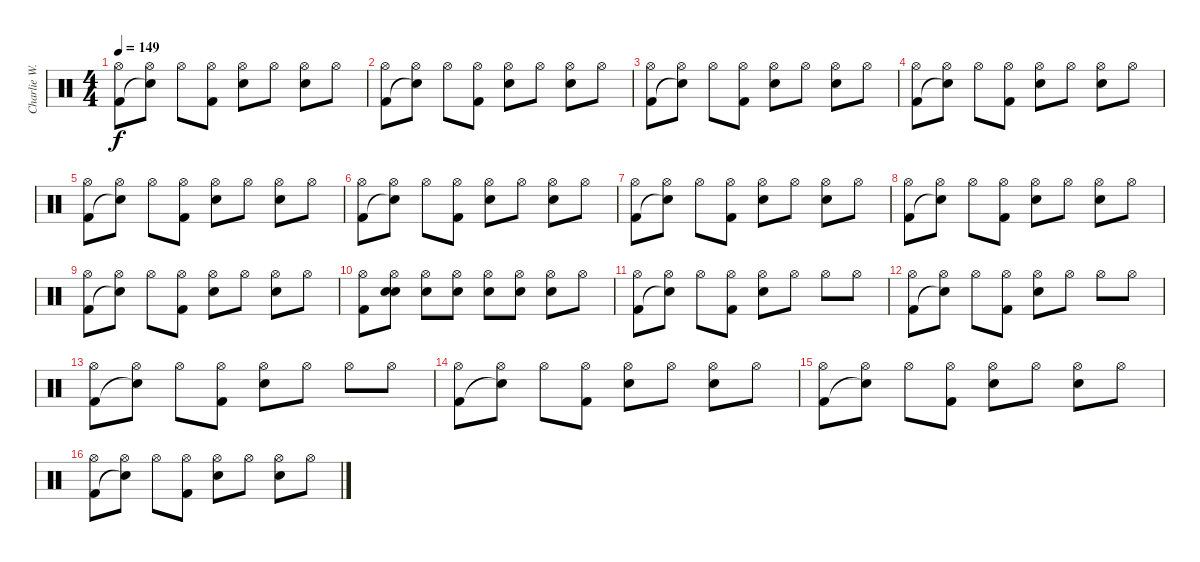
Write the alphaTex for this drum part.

\track ("Charlie W. drums" "Charlie W.") {instrument percussion}
\staff {score}
\articulation defaults
\ts (4 4)
\tempo 149
\clef neutral
\ks c
("Hi-Hat (open)" "Kick (hit) 2").8{dy f} ("Hi-Hat (open)" "Snare (hit)"{t}).8 "Hi-Hat (open)".8 ("Hi-Hat (open)" "Kick (hit) 2").8 ("Hi-Hat (open)" "Snare (hit) 2").8 "Hi-Hat (open)".8 ("Hi-Hat (open)" "Snare (hit) 2").8 "Hi-Hat (open)".8 |
("Hi-Hat (open)" "Kick (hit) 2").8 ("Hi-Hat (open)" "Snare (hit)"{t}).8 "Hi-Hat (open)".8 ("Hi-Hat (open)" "Kick (hit) 2").8 ("Hi-Hat (open)" "Snare (hit) 2").8 "Hi-Hat (open)".8 ("Hi-Hat (open)" "Snare (hit) 2").8 "Hi-Hat (open)".8 |
("Hi-Hat (open)" "Kick (hit) 2").8 ("Hi-Hat (open)" "Snare (hit)"{t}).8 "Hi-Hat (open)".8 ("Hi-Hat (open)" "Kick (hit) 2").8 ("Hi-Hat (open)" "Snare (hit) 2").8 "Hi-Hat (open)".8 ("Hi-Hat (open)" "Snare (hit) 2").8 "Hi-Hat (open)".8 |
("Hi-Hat (open)" "Kick (hit) 2").8 ("Hi-Hat (open)" "Snare (hit)"{t}).8 "Hi-Hat (open)".8 ("Hi-Hat (open)" "Kick (hit) 2").8 ("Hi-Hat (open)" "Snare (hit) 2").8 "Hi-Hat (open)".8 ("Hi-Hat (open)" "Snare (hit) 2").8 "Hi-Hat (open)".8 |
("Hi-Hat (open)" "Kick (hit) 2").8 ("Hi-Hat (open)" "Snare (hit)"{t}).8 "Hi-Hat (open)".8 ("Hi-Hat (open)" "Kick (hit) 2").8 ("Hi-Hat (open)" "Snare (hit) 2").8 "Hi-Hat (open)".8 ("Hi-Hat (open)" "Snare (hit) 2").8 "Hi-Hat (open)".8 |
("Hi-Hat (open)" "Kick (hit) 2").8 ("Hi-Hat (open)" "Snare (hit)"{t}).8 "Hi-Hat (open)".8 ("Hi-Hat (open)" "Kick (hit) 2").8 ("Hi-Hat (open)" "Snare (hit) 2").8 "Hi-Hat (open)".8 ("Hi-Hat (open)" "Snare (hit) 2").8 "Hi-Hat (open)".8 |
("Hi-Hat (open)" "Kick (hit) 2").8 ("Hi-Hat (open)" "Snare (hit)"{t}).8 "Hi-Hat (open)".8 ("Hi-Hat (open)" "Kick (hit) 2").8 ("Hi-Hat (open)" "Snare (hit) 2").8 "Hi-Hat (open)".8 ("Hi-Hat (open)" "Snare (hit) 2").8 "Hi-Hat (open)".8 |
("Hi-Hat (open)" "Kick (hit) 2").8 ("Hi-Hat (open)" "Snare (hit)"{t}).8 "Hi-Hat (open)".8 ("Hi-Hat (open)" "Kick (hit) 2").8 ("Hi-Hat (open)" "Snare (hit) 2").8 "Hi-Hat (open)".8 ("Hi-Hat (open)" "Snare (hit) 2").8 "Hi-Hat (open)".8 |
("Hi-Hat (open)" "Kick (hit) 2").8 ("Hi-Hat (open)" "Snare (hit)"{t}).8 "Hi-Hat (open)".8 ("Hi-Hat (open)" "Kick (hit) 2").8 ("Hi-Hat (open)" "Snare (hit) 2").8 "Hi-Hat (open)".8 ("Hi-Hat (open)" "Snare (hit) 2").8 "Hi-Hat (open)".8 |
("Hi-Hat (open)" "Kick (hit) 2").8 ("Hi-Hat (open)" "Snare (hit) 2" "Snare (hit)").8 ("Hi-Hat (open)" "Snare (hit) 2").8 ("Hi-Hat (open)" "Snare (hit) 2").8 ("Hi-Hat (open)" "Snare (hit) 2").8 ("Hi-Hat (open)" "Snare (hit) 2").8 ("Hi-Hat (open)" "Snare (hit) 2").8 "Hi-Hat (open)".8 |
("Hi-Hat (open)" "Kick (hit) 2").8 ("Hi-Hat (open)" "Snare (hit)"{t}).8 "Hi-Hat (open)".8 ("Hi-Hat (open)" "Kick (hit) 2").8 ("Hi-Hat (open)" "Snare (hit) 2").8 "Hi-Hat (open)".8 "Hi-Hat (open)".8 "Hi-Hat (open)".8 |
("Hi-Hat (open)" "Kick (hit) 2").8 ("Hi-Hat (open)" "Snare (hit)"{t}).8 "Hi-Hat (open)".8 ("Hi-Hat (open)" "Kick (hit) 2").8 ("Hi-Hat (open)" "Snare (hit) 2").8 "Hi-Hat (open)".8 "Hi-Hat (open)".8 "Hi-Hat (open)".8 |
("Hi-Hat (open)" "Kick (hit) 2").8 ("Hi-Hat (open)" "Snare (hit)"{t}).8 "Hi-Hat (open)".8 ("Hi-Hat (open)" "Kick (hit) 2").8 ("Hi-Hat (open)" "Snare (hit) 2").8 "Hi-Hat (open)".8 "Hi-Hat (open)".8 "Hi-Hat (open)".8 |
("Hi-Hat (open)" "Kick (hit) 2").8 ("Hi-Hat (open)" "Snare (hit)"{t}).8 "Hi-Hat (open)".8 ("Hi-Hat (open)" "Kick (hit) 2").8 ("Hi-Hat (open)" "Snare (hit) 2").8 "Hi-Hat (open)".8 ("Hi-Hat (open)" "Snare (hit) 2").8 "Hi-Hat (open)".8 |
("Hi-Hat (open)" "Kick (hit) 2").8 ("Hi-Hat (open)" "Snare (hit)"{t}).8 "Hi-Hat (open)".8 ("Hi-Hat (open)" "Kick (hit) 2").8 ("Hi-Hat (open)" "Snare (hit) 2").8 "Hi-Hat (open)".8 ("Hi-Hat (open)" "Snare (hit) 2").8 "Hi-Hat (open)".8 |
("Hi-Hat (open)" "Kick (hit) 2").8 ("Hi-Hat (open)" "Snare (hit)"{t}).8 "Hi-Hat (open)".8 ("Hi-Hat (open)" "Kick (hit) 2").8 ("Hi-Hat (open)" "Snare (hit) 2").8 "Hi-Hat (open)".8 ("Hi-Hat (open)" "Snare (hit) 2").8 "Hi-Hat (open)".8
